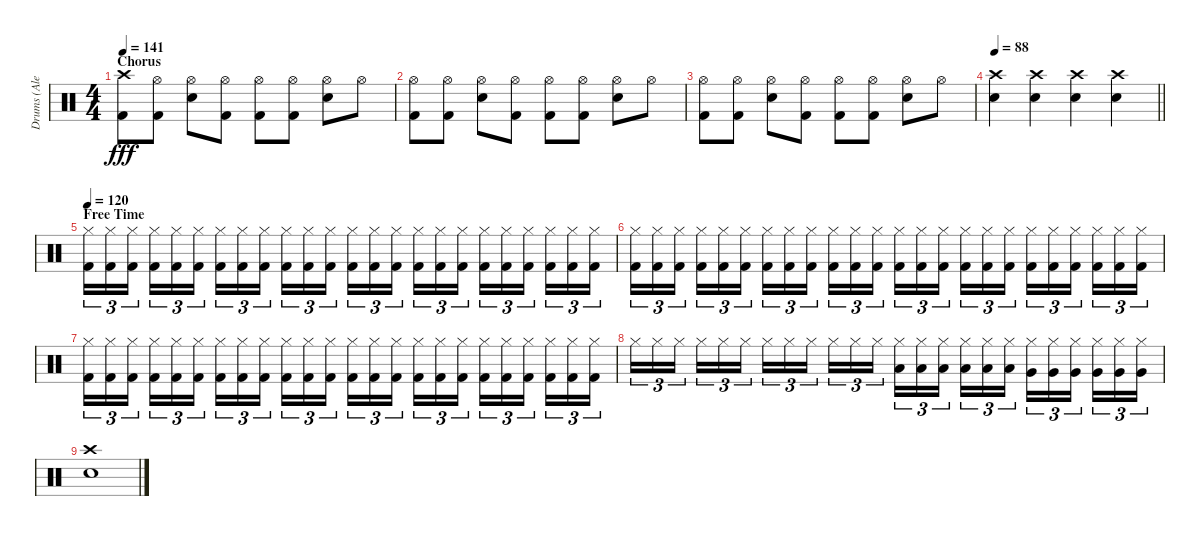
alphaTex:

\track ("Drums (Alex Van Halen)" "Drums (Ale") {instrument percussion}
\staff {score}
\articulation defaults
\ts (4 4)
\section ("" "Chorus")
\tempo 141
\clef neutral
\ks c
("Crash high (hit)" "Kick (hit) 2").8{dy fff} ("Hi-Hat (open)" "Kick (hit) 2").8 ("Hi-Hat (open)" "Electric Snare (hit)").8 ("Hi-Hat (open)" "Kick (hit) 2").8 ("Hi-Hat (open)" "Kick (hit) 2").8 ("Hi-Hat (open)" "Kick (hit) 2").8 ("Hi-Hat (open)" "Electric Snare (hit)").8 "Hi-Hat (open)".8 |
("Hi-Hat (open)" "Kick (hit) 2").8 ("Hi-Hat (open)" "Kick (hit) 2").8 ("Hi-Hat (open)" "Electric Snare (hit)").8 ("Hi-Hat (open)" "Kick (hit) 2").8 ("Hi-Hat (open)" "Kick (hit) 2").8 ("Hi-Hat (open)" "Kick (hit) 2").8 ("Hi-Hat (open)" "Electric Snare (hit)").8 "Hi-Hat (open)".8 |
("Hi-Hat (open)" "Kick (hit) 2").8 ("Hi-Hat (open)" "Kick (hit) 2").8 ("Hi-Hat (open)" "Electric Snare (hit)").8 ("Hi-Hat (open)" "Kick (hit) 2").8 ("Hi-Hat (open)" "Kick (hit) 2").8 ("Hi-Hat (open)" "Kick (hit) 2").8 ("Hi-Hat (open)" "Electric Snare (hit)").8 "Hi-Hat (open)".8 |
\tempo 88
\barLineRight lightlight
("Crash high (hit)" "Electric Snare (hit)").4 ("Crash high (hit)" "Electric Snare (hit)").4 ("Crash high (hit)" "Electric Snare (hit)").4 ("Crash high (hit)" "Electric Snare (hit)").4 |
\section ("" "Free Time")
\tempo 120
("Hi-Hat (closed)" "Kick (hit) 2").16{tu (3 2)} ("Hi-Hat (closed)" "Kick (hit) 2").16{tu (3 2)} ("Hi-Hat (closed)" "Kick (hit) 2").16{tu (3 2) beam splitsecondary} ("Hi-Hat (closed)" "Kick (hit) 2").16{tu (3 2)} ("Hi-Hat (closed)" "Kick (hit) 2").16{tu (3 2)} ("Hi-Hat (closed)" "Kick (hit) 2").16{tu (3 2)} ("Hi-Hat (closed)" "Kick (hit) 2").16{tu (3 2)} ("Hi-Hat (closed)" "Kick (hit) 2").16{tu (3 2)} ("Hi-Hat (closed)" "Kick (hit) 2").16{tu (3 2) beam splitsecondary} ("Hi-Hat (closed)" "Kick (hit) 2").16{tu (3 2)} ("Hi-Hat (closed)" "Kick (hit) 2").16{tu (3 2)} ("Hi-Hat (closed)" "Kick (hit) 2").16{tu (3 2)} ("Hi-Hat (closed)" "Kick (hit) 2").16{tu (3 2)} ("Hi-Hat (closed)" "Kick (hit) 2").16{tu (3 2)} ("Hi-Hat (closed)" "Kick (hit) 2").16{tu (3 2) beam splitsecondary} ("Hi-Hat (closed)" "Kick (hit) 2").16{tu (3 2)} ("Hi-Hat (closed)" "Kick (hit) 2").16{tu (3 2)} ("Hi-Hat (closed)" "Kick (hit) 2").16{tu (3 2)} ("Hi-Hat (closed)" "Kick (hit) 2").16{tu (3 2)} ("Hi-Hat (closed)" "Kick (hit) 2").16{tu (3 2)} ("Hi-Hat (closed)" "Kick (hit) 2").16{tu (3 2) beam splitsecondary} ("Hi-Hat (closed)" "Kick (hit) 2").16{tu (3 2)} ("Hi-Hat (closed)" "Kick (hit) 2").16{tu (3 2)} ("Hi-Hat (closed)" "Kick (hit) 2").16{tu (3 2)} |
("Hi-Hat (closed)" "Kick (hit) 2").16{tu (3 2)} ("Hi-Hat (closed)" "Kick (hit) 2").16{tu (3 2)} ("Hi-Hat (closed)" "Kick (hit) 2").16{tu (3 2) beam splitsecondary} ("Hi-Hat (closed)" "Kick (hit) 2").16{tu (3 2)} ("Hi-Hat (closed)" "Kick (hit) 2").16{tu (3 2)} ("Hi-Hat (closed)" "Kick (hit) 2").16{tu (3 2)} ("Hi-Hat (closed)" "Kick (hit) 2").16{tu (3 2)} ("Hi-Hat (closed)" "Kick (hit) 2").16{tu (3 2)} ("Hi-Hat (closed)" "Kick (hit) 2").16{tu (3 2) beam splitsecondary} ("Hi-Hat (closed)" "Kick (hit) 2").16{tu (3 2)} ("Hi-Hat (closed)" "Kick (hit) 2").16{tu (3 2)} ("Hi-Hat (closed)" "Kick (hit) 2").16{tu (3 2)} ("Hi-Hat (closed)" "Kick (hit) 2").16{tu (3 2)} ("Hi-Hat (closed)" "Kick (hit) 2").16{tu (3 2)} ("Hi-Hat (closed)" "Kick (hit) 2").16{tu (3 2) beam splitsecondary} ("Hi-Hat (closed)" "Kick (hit) 2").16{tu (3 2)} ("Hi-Hat (closed)" "Kick (hit) 2").16{tu (3 2)} ("Hi-Hat (closed)" "Kick (hit) 2").16{tu (3 2)} ("Hi-Hat (closed)" "Kick (hit) 2").16{tu (3 2)} ("Hi-Hat (closed)" "Kick (hit) 2").16{tu (3 2)} ("Hi-Hat (closed)" "Kick (hit) 2").16{tu (3 2) beam splitsecondary} ("Hi-Hat (closed)" "Kick (hit) 2").16{tu (3 2)} ("Hi-Hat (closed)" "Kick (hit) 2").16{tu (3 2)} ("Hi-Hat (closed)" "Kick (hit) 2").16{tu (3 2)} |
("Hi-Hat (closed)" "Kick (hit) 2").16{tu (3 2)} ("Hi-Hat (closed)" "Kick (hit) 2").16{tu (3 2)} ("Hi-Hat (closed)" "Kick (hit) 2").16{tu (3 2) beam splitsecondary} ("Hi-Hat (closed)" "Kick (hit) 2").16{tu (3 2)} ("Hi-Hat (closed)" "Kick (hit) 2").16{tu (3 2)} ("Hi-Hat (closed)" "Kick (hit) 2").16{tu (3 2)} ("Hi-Hat (closed)" "Kick (hit) 2").16{tu (3 2)} ("Hi-Hat (closed)" "Kick (hit) 2").16{tu (3 2)} ("Hi-Hat (closed)" "Kick (hit) 2").16{tu (3 2) beam splitsecondary} ("Hi-Hat (closed)" "Kick (hit) 2").16{tu (3 2)} ("Hi-Hat (closed)" "Kick (hit) 2").16{tu (3 2)} ("Hi-Hat (closed)" "Kick (hit) 2").16{tu (3 2)} ("Hi-Hat (closed)" "Kick (hit) 2").16{tu (3 2)} ("Hi-Hat (closed)" "Kick (hit) 2").16{tu (3 2)} ("Hi-Hat (closed)" "Kick (hit) 2").16{tu (3 2) beam splitsecondary} ("Hi-Hat (closed)" "Kick (hit) 2").16{tu (3 2)} ("Hi-Hat (closed)" "Kick (hit) 2").16{tu (3 2)} ("Hi-Hat (closed)" "Kick (hit) 2").16{tu (3 2)} ("Hi-Hat (closed)" "Kick (hit) 2").16{tu (3 2)} ("Hi-Hat (closed)" "Kick (hit) 2").16{tu (3 2)} ("Hi-Hat (closed)" "Kick (hit) 2").16{tu (3 2) beam splitsecondary} ("Hi-Hat (closed)" "Kick (hit) 2").16{tu (3 2)} ("Hi-Hat (closed)" "Kick (hit) 2").16{tu (3 2)} ("Hi-Hat (closed)" "Kick (hit) 2").16{tu (3 2)} |
"Hi-Hat (closed)".16{tu (3 2)} "Hi-Hat (closed)".16{tu (3 2)} "Hi-Hat (closed)".16{tu (3 2) beam splitsecondary} "Hi-Hat (closed)".16{tu (3 2)} "Hi-Hat (closed)".16{tu (3 2)} "Hi-Hat (closed)".16{tu (3 2)} "Hi-Hat (closed)".16{tu (3 2)} "Hi-Hat (closed)".16{tu (3 2)} "Hi-Hat (closed)".16{tu (3 2) beam splitsecondary} "Hi-Hat (closed)".16{tu (3 2)} "Hi-Hat (closed)".16{tu (3 2)} "Hi-Hat (closed)".16{tu (3 2)} ("Hi-Hat (closed)" "Low Tom (hit)").16{tu (3 2)} ("Hi-Hat (closed)" "Low Tom (hit)").16{tu (3 2)} ("Hi-Hat (closed)" "Low Tom (hit)").16{tu (3 2) beam splitsecondary} ("Hi-Hat (closed)" "Low Tom (hit)").16{tu (3 2)} ("Hi-Hat (closed)" "Low Tom (hit)").16{tu (3 2)} ("Hi-Hat (closed)" "Low Tom (hit)").16{tu (3 2)} ("Hi-Hat (closed)" "Very Low Tom (hit)").16{tu (3 2)} ("Hi-Hat (closed)" "Very Low Tom (hit)").16{tu (3 2)} ("Hi-Hat (closed)" "Very Low Tom (hit)").16{tu (3 2) beam splitsecondary} ("Hi-Hat (closed)" "Very Low Tom (hit)").16{tu (3 2)} ("Hi-Hat (closed)" "Very Low Tom (hit)").16{tu (3 2)} ("Hi-Hat (closed)" "Very Low Tom (hit)").16{tu (3 2)} |
("Crash high (hit)" "Electric Snare (hit)").1
